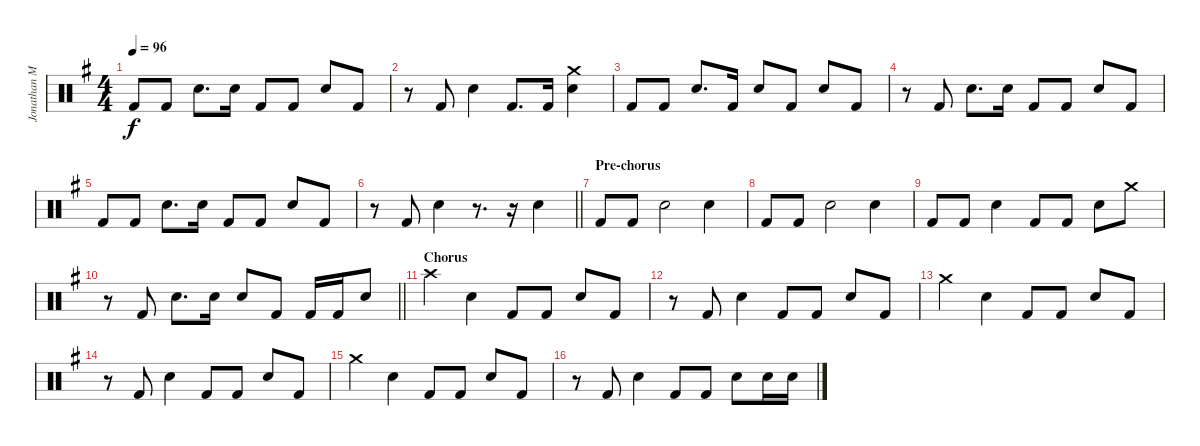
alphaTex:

\track ("Jonathan Mover (Drums)" "Jonathan M") {instrument percussion}
\staff {score}
\articulation defaults
\ts (4 4)
\tempo 96
\clef neutral
\ks g "Kick (hit) 2".8{dy f} "Kick (hit) 2".8 "Electric Snare (hit)".8{d} "Electric Snare (hit)".16 "Kick (hit) 2".8 "Kick (hit) 2".8 "Electric Snare (hit)".8 "Kick (hit) 2".8
|
r.8 "Kick (hit) 2".8 "Electric Snare (hit)".4 "Kick (hit) 2".8{d} "Kick (hit) 2".16 ("Electric Snare (hit)" "Crash medium (hit)").4 |
"Kick (hit) 2".8 "Kick (hit) 2".8 "Electric Snare (hit)".8{d} "Kick (hit) 2".16 "Electric Snare (hit)".8 "Kick (hit) 2".8 "Electric Snare (hit)".8 "Kick (hit) 2".8 |
r.8 "Kick (hit) 2".8 "Electric Snare (hit)".8{d} "Electric Snare (hit)".16 "Kick (hit) 2".8 "Kick (hit) 2".8 "Electric Snare (hit)".8 "Kick (hit) 2".8 |
"Kick (hit) 2".8 "Kick (hit) 2".8 "Electric Snare (hit)".8{d} "Electric Snare (hit)".16 "Kick (hit) 2".8 "Kick (hit) 2".8 "Electric Snare (hit)".8 "Kick (hit) 2".8 |
\barLineRight lightlight
r.8 "Kick (hit) 2".8 "Electric Snare (hit)".4 r.8{d} r.16 "Electric Snare (hit)".4 |
\section ("" "Pre-chorus")
"Kick (hit) 2".8 "Kick (hit) 2".8 "Electric Snare (hit)".2 "Electric Snare (hit)".4 |
"Kick (hit) 2".8 "Kick (hit) 2".8 "Electric Snare (hit)".2 "Electric Snare (hit)".4 |
"Kick (hit) 2".8 "Kick (hit) 2".8 "Electric Snare (hit)".4 "Kick (hit) 2".8 "Kick (hit) 2".8 "Electric Snare (hit)".8 "Crash medium (hit)".8 |
\barLineRight lightlight
r.8 "Kick (hit) 2".8 "Electric Snare (hit)".8{d} "Electric Snare (hit)".16 "Electric Snare (hit)".8 "Kick (hit) 2".8 "Kick (hit) 2".16 "Kick (hit) 2".16 "Electric Snare (hit)".8 |
\section ("" "Chorus")
"Crash high (hit)".4 "Electric Snare (hit)".4 "Kick (hit) 2".8 "Kick (hit) 2".8 "Electric Snare (hit)".8 "Kick (hit) 2".8 |
r.8 "Kick (hit) 2".8 "Electric Snare (hit)".4 "Kick (hit) 2".8 "Kick (hit) 2".8 "Electric Snare (hit)".8 "Kick (hit) 2".8 |
"Crash medium (hit)".4 "Electric Snare (hit)".4 "Kick (hit) 2".8 "Kick (hit) 2".8 "Electric Snare (hit)".8 "Kick (hit) 2".8 |
r.8 "Kick (hit) 2".8 "Electric Snare (hit)".4 "Kick (hit) 2".8 "Kick (hit) 2".8 "Electric Snare (hit)".8 "Kick (hit) 2".8 |
"Crash medium (hit)".4 "Electric Snare (hit)".4 "Kick (hit) 2".8 "Kick (hit) 2".8 "Electric Snare (hit)".8 "Kick (hit) 2".8 |
r.8 "Kick (hit) 2".8 "Electric Snare (hit)".4 "Kick (hit) 2".8 "Kick (hit) 2".8 "Electric Snare (hit)".8 "Electric Snare (hit)".16 "Electric Snare (hit)".16
